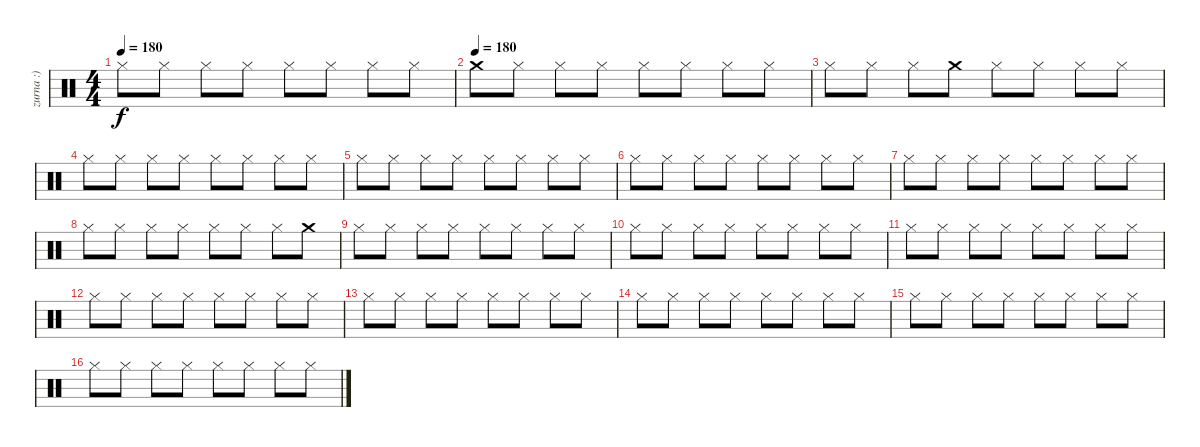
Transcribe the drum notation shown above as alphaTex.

\track ("zurna :)" "zurna :)") {instrument percussion}
\staff {score}
\articulation defaults
\ts (4 4)
\tempo 180
\clef neutral
\ks c "Hi-Hat (closed)".8{dy f} "Hi-Hat (closed)".8 "Hi-Hat (closed)".8 "Hi-Hat (closed)".8 "Hi-Hat (closed)".8 "Hi-Hat (closed)".8 "Hi-Hat (closed)".8 "Hi-Hat (closed)".8
|
\tempo (180)
"Crash medium (hit)".8 "Hi-Hat (closed)".8 "Hi-Hat (closed)".8 "Hi-Hat (closed)".8 "Hi-Hat (closed)".8 "Hi-Hat (closed)".8 "Hi-Hat (closed)".8 "Hi-Hat (closed)".8 |
"Hi-Hat (closed)".8 "Hi-Hat (closed)".8 "Hi-Hat (closed)".8 "Crash medium (hit)".8 "Hi-Hat (closed)".8 "Hi-Hat (closed)".8 "Hi-Hat (closed)".8 "Hi-Hat (closed)".8 |
"Hi-Hat (closed)".8 "Hi-Hat (closed)".8 "Hi-Hat (closed)".8 "Hi-Hat (closed)".8 "Hi-Hat (closed)".8 "Hi-Hat (closed)".8 "Hi-Hat (closed)".8 "Hi-Hat (closed)".8 |
"Hi-Hat (closed)".8 "Hi-Hat (closed)".8 "Hi-Hat (closed)".8 "Hi-Hat (closed)".8 "Hi-Hat (closed)".8 "Hi-Hat (closed)".8 "Hi-Hat (closed)".8 "Hi-Hat (closed)".8 |
"Hi-Hat (closed)".8 "Hi-Hat (closed)".8 "Hi-Hat (closed)".8 "Hi-Hat (closed)".8 "Hi-Hat (closed)".8 "Hi-Hat (closed)".8 "Hi-Hat (closed)".8 "Hi-Hat (closed)".8 |
"Hi-Hat (closed)".8 "Hi-Hat (closed)".8 "Hi-Hat (closed)".8 "Hi-Hat (closed)".8 "Hi-Hat (closed)".8 "Hi-Hat (closed)".8 "Hi-Hat (closed)".8 "Hi-Hat (closed)".8 |
"Hi-Hat (closed)".8 "Hi-Hat (closed)".8 "Hi-Hat (closed)".8 "Hi-Hat (closed)".8 "Hi-Hat (closed)".8 "Hi-Hat (closed)".8 "Hi-Hat (closed)".8 "Crash medium (hit)".8 |
"Hi-Hat (closed)".8 "Hi-Hat (closed)".8 "Hi-Hat (closed)".8 "Hi-Hat (closed)".8 "Hi-Hat (closed)".8 "Hi-Hat (closed)".8 "Hi-Hat (closed)".8 "Hi-Hat (closed)".8 |
"Hi-Hat (closed)".8 "Hi-Hat (closed)".8 "Hi-Hat (closed)".8 "Hi-Hat (closed)".8 "Hi-Hat (closed)".8 "Hi-Hat (closed)".8 "Hi-Hat (closed)".8 "Hi-Hat (closed)".8 |
"Hi-Hat (closed)".8 "Hi-Hat (closed)".8 "Hi-Hat (closed)".8 "Hi-Hat (closed)".8 "Hi-Hat (closed)".8 "Hi-Hat (closed)".8 "Hi-Hat (closed)".8 "Hi-Hat (closed)".8 |
"Hi-Hat (closed)".8 "Hi-Hat (closed)".8 "Hi-Hat (closed)".8 "Hi-Hat (closed)".8 "Hi-Hat (closed)".8 "Hi-Hat (closed)".8 "Hi-Hat (closed)".8 "Hi-Hat (closed)".8 |
"Hi-Hat (closed)".8 "Hi-Hat (closed)".8 "Hi-Hat (closed)".8 "Hi-Hat (closed)".8 "Hi-Hat (closed)".8 "Hi-Hat (closed)".8 "Hi-Hat (closed)".8 "Hi-Hat (closed)".8 |
"Hi-Hat (closed)".8 "Hi-Hat (closed)".8 "Hi-Hat (closed)".8 "Hi-Hat (closed)".8 "Hi-Hat (closed)".8 "Hi-Hat (closed)".8 "Hi-Hat (closed)".8 "Hi-Hat (closed)".8 |
"Hi-Hat (closed)".8 "Hi-Hat (closed)".8 "Hi-Hat (closed)".8 "Hi-Hat (closed)".8 "Hi-Hat (closed)".8 "Hi-Hat (closed)".8 "Hi-Hat (closed)".8 "Hi-Hat (closed)".8 |
"Hi-Hat (closed)".8 "Hi-Hat (closed)".8 "Hi-Hat (closed)".8 "Hi-Hat (closed)".8 "Hi-Hat (closed)".8 "Hi-Hat (closed)".8 "Hi-Hat (closed)".8 "Hi-Hat (closed)".8
